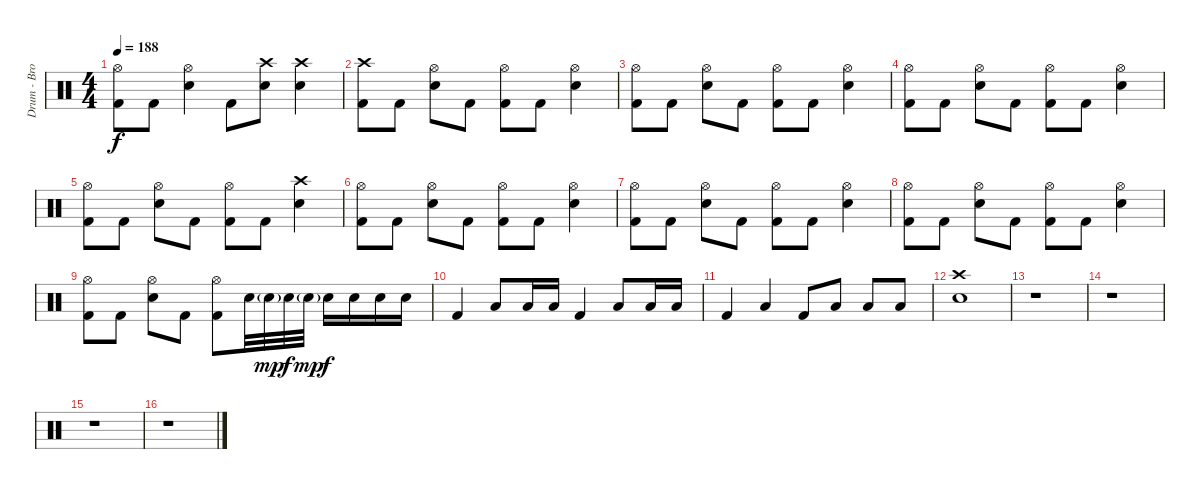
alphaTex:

\track ("Drum - Brooks Wackerman" "Drum - Bro") {instrument percussion}
\staff {score}
\articulation defaults
\ts (4 4)
\tempo 188
\clef neutral
\ks c
("Hi-Hat (open)" "Kick (hit) 2").8{dy f} "Kick (hit) 2".8 ("Hi-Hat (open)" "Electric Snare (hit)").4 "Kick (hit) 2".8 ("Crash high (hit)" "Electric Snare (hit)").8 ("Crash high (hit)" "Electric Snare (hit)").4 |
("Crash high (hit)" "Kick (hit) 2").8 "Kick (hit) 2".8 ("Hi-Hat (open)" "Electric Snare (hit)").8 "Kick (hit) 2".8 ("Hi-Hat (open)" "Kick (hit) 2").8 "Kick (hit) 2".8 ("Hi-Hat (open)" "Electric Snare (hit)").4 |
("Hi-Hat (open)" "Kick (hit) 2").8 "Kick (hit) 2".8 ("Hi-Hat (open)" "Electric Snare (hit)").8 "Kick (hit) 2".8 ("Hi-Hat (open)" "Kick (hit) 2").8 "Kick (hit) 2".8 ("Hi-Hat (open)" "Electric Snare (hit)").4 |
("Hi-Hat (open)" "Kick (hit) 2").8 "Kick (hit) 2".8 ("Hi-Hat (open)" "Electric Snare (hit)").8 "Kick (hit) 2".8 ("Hi-Hat (open)" "Kick (hit) 2").8 "Kick (hit) 2".8 ("Hi-Hat (open)" "Electric Snare (hit)").4 |
("Hi-Hat (open)" "Kick (hit) 2").8 "Kick (hit) 2".8 ("Hi-Hat (open)" "Electric Snare (hit)").8 "Kick (hit) 2".8 ("Hi-Hat (open)" "Kick (hit) 2").8 "Kick (hit) 2".8 ("Crash high (hit)" "Electric Snare (hit)").4 |
("Hi-Hat (open)" "Kick (hit) 2").8 "Kick (hit) 2".8 ("Hi-Hat (open)" "Electric Snare (hit)").8 "Kick (hit) 2".8 ("Hi-Hat (open)" "Kick (hit) 2").8 "Kick (hit) 2".8 ("Hi-Hat (open)" "Electric Snare (hit)").4 |
("Hi-Hat (open)" "Kick (hit) 2").8 "Kick (hit) 2".8 ("Hi-Hat (open)" "Electric Snare (hit)").8 "Kick (hit) 2".8 ("Hi-Hat (open)" "Kick (hit) 2").8 "Kick (hit) 2".8 ("Hi-Hat (open)" "Electric Snare (hit)").4 |
("Hi-Hat (open)" "Kick (hit) 2").8 "Kick (hit) 2".8 ("Hi-Hat (open)" "Electric Snare (hit)").8 "Kick (hit) 2".8 ("Hi-Hat (open)" "Kick (hit) 2").8 "Kick (hit) 2".8 ("Hi-Hat (open)" "Electric Snare (hit)").4 |
("Hi-Hat (open)" "Kick (hit) 2").8 "Kick (hit) 2".8 ("Hi-Hat (open)" "Electric Snare (hit)").8 "Kick (hit) 2".8 ("Hi-Hat (open)" "Kick (hit) 2").8 "Electric Snare (hit)".32 "Electric Snare (hit)"{g}.32{dy mp} "Electric Snare (hit)".32{dy f} "Electric Snare (hit)"{g}.32{dy mp} "Electric Snare (hit)".16{dy f} "Electric Snare (hit)".16 "Electric Snare (hit)".16 "Electric Snare (hit)".16 |
"Kick (hit) 2".4 "Low Tom (hit)".8 "Low Floor Tom (hit)".16 "Low Floor Tom (hit)".16 "Kick (hit) 2".4 "Low Tom (hit)".8 "Low Floor Tom (hit)".16 "Low Floor Tom (hit)".16 |
"Kick (hit) 2".4 "Low Tom (hit)".4 "Kick (hit) 2".8 "Low Tom (hit)".8 "Low Tom (hit)".8 "Low Floor Tom (hit)".8 |
("Crash high (hit)" "Electric Snare (hit)").1 |
r.1 |
r.1 |
r.1 |
r.1
